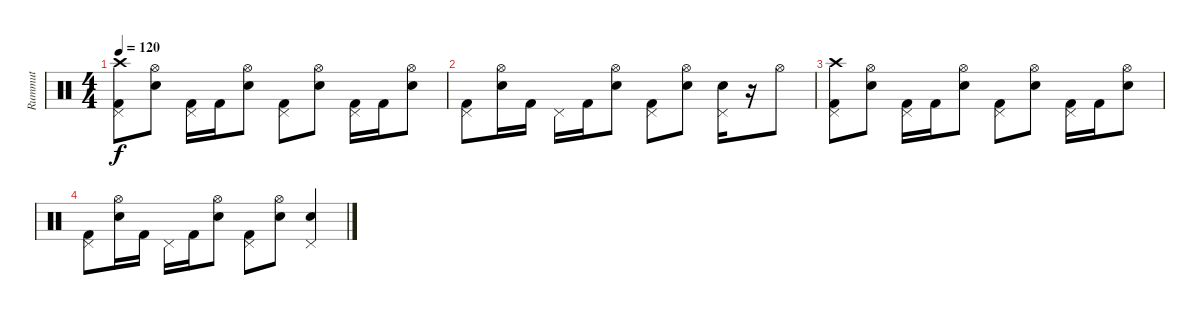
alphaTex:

\track ("Rummut" "Rummut") {instrument percussion}
\staff {score}
\articulation defaults
\ts (4 4)
\tempo 120
\clef neutral
\ks c
("Crash high (hit)" "Pedal Hi-Hat (hit)" "Kick (hit) 2").8{dy f} ("Hi-Hat (open)" "Snare (hit) 2").8 ("Pedal Hi-Hat (hit)" "Kick (hit) 2").16 "Kick (hit) 2".16 ("Hi-Hat (open)" "Snare (hit) 2").8 ("Pedal Hi-Hat (hit)" "Kick (hit) 2").8 ("Hi-Hat (open)" "Snare (hit) 2").8 ("Pedal Hi-Hat (hit)" "Kick (hit) 2").16 "Kick (hit) 2".16 ("Hi-Hat (open)" "Snare (hit) 2").8 |
("Pedal Hi-Hat (hit)" "Kick (hit) 2").8 ("Hi-Hat (open)" "Snare (hit) 2").16 "Kick (hit) 2".16 "Pedal Hi-Hat (hit)".16 "Kick (hit) 2".16 ("Hi-Hat (open)" "Snare (hit) 2").8 ("Pedal Hi-Hat (hit)" "Kick (hit) 2").8 ("Hi-Hat (open)" "Snare (hit) 2").8 ("Pedal Hi-Hat (hit)" "Snare (hit) 2").16 r.16 "Hi-Hat (open)".8 |
("Crash high (hit)" "Pedal Hi-Hat (hit)" "Kick (hit) 2").8 ("Hi-Hat (open)" "Snare (hit) 2").8 ("Pedal Hi-Hat (hit)" "Kick (hit) 2").16 "Kick (hit) 2".16 ("Hi-Hat (open)" "Snare (hit) 2").8 ("Pedal Hi-Hat (hit)" "Kick (hit) 2").8 ("Hi-Hat (open)" "Snare (hit) 2").8 ("Pedal Hi-Hat (hit)" "Kick (hit) 2").16 "Kick (hit) 2".16 ("Hi-Hat (open)" "Snare (hit) 2").8 |
("Pedal Hi-Hat (hit)" "Kick (hit) 2").8 ("Hi-Hat (open)" "Snare (hit) 2").16 "Kick (hit) 2".16 "Pedal Hi-Hat (hit)".16 "Kick (hit) 2".16 ("Hi-Hat (open)" "Snare (hit) 2").8 ("Pedal Hi-Hat (hit)" "Kick (hit) 2").8 ("Hi-Hat (open)" "Snare (hit) 2").8 ("Pedal Hi-Hat (hit)" "Snare (hit) 2").4
